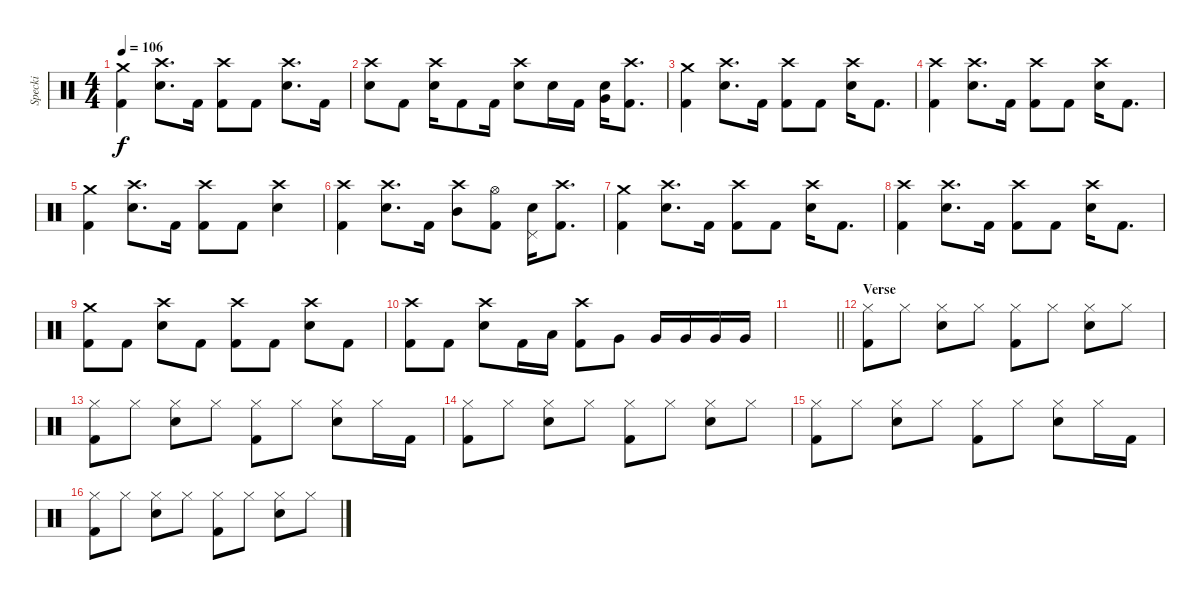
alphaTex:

\track ("Specki" "Specki") {instrument percussion}
\staff {score}
\articulation defaults
\ts (4 4)
\tempo 106
\clef neutral
\ks c
("Crash medium (hit)" "Kick (hit) 2").4{dy f} ("Crash high (hit)" "Snare (hit) 2").8{d} "Kick (hit) 2".16 ("Crash high (hit)" "Kick (hit) 2").8 "Kick (hit) 2".8 ("Crash high (hit)" "Snare (hit) 2").8{d} "Kick (hit) 2".16 |
("Crash high (hit)" "Snare (hit) 2").8 "Kick (hit) 2".8 ("Crash high (hit)" "Snare (hit) 2").16 "Kick (hit) 2".8 "Kick (hit) 2".16 ("Crash high (hit)" "Snare (hit) 2").8 "Snare (hit) 2".16 "Kick (hit) 2".16 ("Very Low Tom (hit)" "Snare (hit) 2").16 ("Crash high (hit)" "Kick (hit) 2").8{d} |
("Crash medium (hit)" "Kick (hit) 2").4 ("Crash high (hit)" "Snare (hit) 2").8{d} "Kick (hit) 2".16 ("Crash high (hit)" "Kick (hit) 2").8 "Kick (hit) 2".8 ("Crash high (hit)" "Snare (hit) 2").16 "Kick (hit) 2".8{d} |
("Crash high (hit)" "Kick (hit) 2").4 ("Crash high (hit)" "Snare (hit) 2").8{d} "Kick (hit) 2".16 ("Crash high (hit)" "Kick (hit) 2").8 "Kick (hit) 2".8 ("Crash high (hit)" "Snare (hit) 2").16 "Kick (hit) 2".8{d} |
("Crash medium (hit)" "Kick (hit) 2").4 ("Crash high (hit)" "Snare (hit) 2").8{d} "Kick (hit) 2".16 ("Crash high (hit)" "Kick (hit) 2").8 "Kick (hit) 2".8 ("Crash high (hit)" "Snare (hit) 2").4 |
("Crash high (hit)" "Kick (hit) 2").4 ("Crash high (hit)" "Snare (hit) 2").8{d} "Kick (hit) 2".16 ("Crash high (hit)" "Mid Tom (hit)").8 ("Hi-Hat (open)" "Kick (hit) 2").8 ("Pedal Hi-Hat (hit)" "Snare (hit) 2").16 ("Crash high (hit)" "Kick (hit) 2").8{d} |
("Crash medium (hit)" "Kick (hit) 2").4 ("Crash high (hit)" "Snare (hit) 2").8{d} "Kick (hit) 2".16 ("Crash high (hit)" "Kick (hit) 2").8 "Kick (hit) 2".8 ("Crash high (hit)" "Snare (hit) 2").16 "Kick (hit) 2".8{d} |
("Crash high (hit)" "Kick (hit) 2").4 ("Crash high (hit)" "Snare (hit) 2").8{d} "Kick (hit) 2".16 ("Crash high (hit)" "Kick (hit) 2").8 "Kick (hit) 2".8 ("Crash high (hit)" "Snare (hit) 2").16 "Kick (hit) 2".8{d} |
("Crash medium (hit)" "Kick (hit) 2").8 "Kick (hit) 2".8 ("Crash high (hit)" "Snare (hit) 2").8 "Kick (hit) 2".8 ("Crash high (hit)" "Kick (hit) 2").8 "Kick (hit) 2".8 ("Crash high (hit)" "Snare (hit) 2").8 "Kick (hit) 2".8 |
("Crash high (hit)" "Kick (hit) 2").8 "Kick (hit) 2".8 ("Crash high (hit)" "Snare (hit) 2").8 "Kick (hit) 2".16 "Low Tom (hit)".16 ("Crash high (hit)" "Kick (hit) 2").8 "Very Low Tom (hit)".8 "Very Low Tom (hit)".16 "Very Low Tom (hit)".16 "Very Low Tom (hit)".16 "Very Low Tom (hit)".16 |
\barLineRight lightlight
|
\section ("" "Verse")
("Hi-Hat (closed)" "Kick (hit) 2").8 "Hi-Hat (closed)".8 ("Hi-Hat (closed)" "Snare (hit) 2").8 "Hi-Hat (closed)".8 ("Hi-Hat (closed)" "Kick (hit) 2").8 "Hi-Hat (closed)".8 ("Hi-Hat (closed)" "Snare (hit) 2").8 "Hi-Hat (closed)".8 |
("Hi-Hat (closed)" "Kick (hit) 2").8 "Hi-Hat (closed)".8 ("Hi-Hat (closed)" "Snare (hit) 2").8 "Hi-Hat (closed)".8 ("Hi-Hat (closed)" "Kick (hit) 2").8 "Hi-Hat (closed)".8 ("Hi-Hat (closed)" "Snare (hit) 2").8 "Hi-Hat (closed)".16 "Kick (hit) 2".16 |
("Hi-Hat (closed)" "Kick (hit) 2").8 "Hi-Hat (closed)".8 ("Hi-Hat (closed)" "Snare (hit) 2").8 "Hi-Hat (closed)".8 ("Hi-Hat (closed)" "Kick (hit) 2").8 "Hi-Hat (closed)".8 ("Hi-Hat (closed)" "Snare (hit) 2").8 "Hi-Hat (closed)".8 |
("Hi-Hat (closed)" "Kick (hit) 2").8 "Hi-Hat (closed)".8 ("Hi-Hat (closed)" "Snare (hit) 2").8 "Hi-Hat (closed)".8 ("Hi-Hat (closed)" "Kick (hit) 2").8 "Hi-Hat (closed)".8 ("Hi-Hat (closed)" "Snare (hit) 2").8 "Hi-Hat (closed)".16 "Kick (hit) 2".16 |
("Hi-Hat (closed)" "Kick (hit) 2").8 "Hi-Hat (closed)".8 ("Hi-Hat (closed)" "Snare (hit) 2").8 "Hi-Hat (closed)".8 ("Hi-Hat (closed)" "Kick (hit) 2").8 "Hi-Hat (closed)".8 ("Hi-Hat (closed)" "Snare (hit) 2").8 "Hi-Hat (closed)".8
